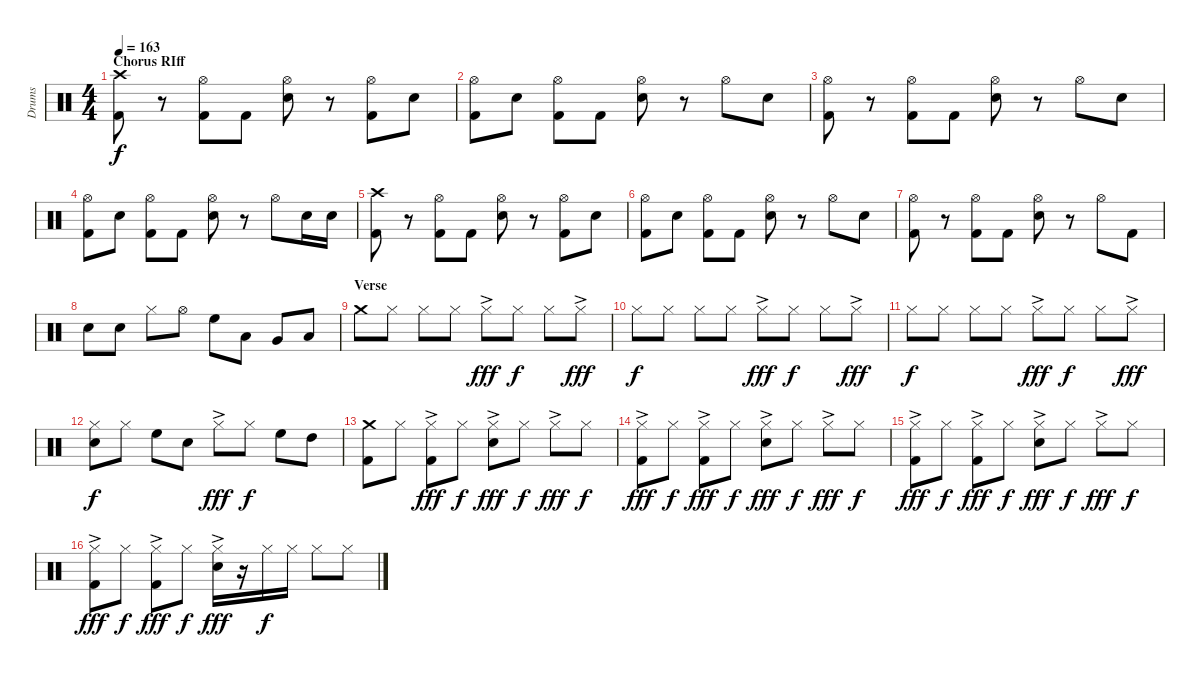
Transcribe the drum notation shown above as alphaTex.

\track ("Drums" "Drums") {instrument percussion}
\staff {score}
\articulation defaults
\ts (4 4)
\section ("" "Chorus RIff")
\tempo 163
\clef neutral
\ks c
("Crash high (hit)" "Kick (hit) 2").8{dy f} r.8 ("Hi-Hat (open)" "Kick (hit) 2").8 "Kick (hit) 2".8 ("Hi-Hat (open)" "Snare (hit) 2").8 r.8 ("Hi-Hat (open)" "Kick (hit) 2").8 "Snare (hit) 2".8 |
("Hi-Hat (open)" "Kick (hit) 2").8 "Snare (hit) 2".8 ("Hi-Hat (open)" "Kick (hit) 2").8 "Kick (hit) 2".8 ("Hi-Hat (open)" "Snare (hit) 2").8 r.8 "Hi-Hat (open)".8 "Snare (hit) 2".8 |
("Hi-Hat (open)" "Kick (hit) 2").8 r.8 ("Hi-Hat (open)" "Kick (hit) 2").8 "Kick (hit) 2".8 ("Hi-Hat (open)" "Snare (hit) 2").8 r.8 "Hi-Hat (open)".8 "Snare (hit) 2".8 |
("Hi-Hat (open)" "Kick (hit) 2").8 "Snare (hit) 2".8 ("Hi-Hat (open)" "Kick (hit) 2").8 "Kick (hit) 2".8 ("Hi-Hat (open)" "Snare (hit) 2").8 r.8 "Hi-Hat (open)".8 "Snare (hit) 2".16 "Snare (hit) 2".16 |
("Crash high (hit)" "Kick (hit) 2").8 r.8 ("Hi-Hat (open)" "Kick (hit) 2").8 "Kick (hit) 2".8 ("Hi-Hat (open)" "Snare (hit) 2").8 r.8 ("Hi-Hat (open)" "Kick (hit) 2").8 "Snare (hit) 2".8 |
("Hi-Hat (open)" "Kick (hit) 2").8 "Snare (hit) 2".8 ("Hi-Hat (open)" "Kick (hit) 2").8 "Kick (hit) 2".8 ("Hi-Hat (open)" "Snare (hit) 2").8 r.8 "Hi-Hat (open)".8 "Snare (hit) 2".8 |
("Hi-Hat (open)" "Kick (hit) 2").8 r.8 ("Hi-Hat (open)" "Kick (hit) 2").8 "Kick (hit) 2".8 ("Hi-Hat (open)" "Snare (hit) 2").8 r.8 "Hi-Hat (open)".8 "Kick (hit) 2".8 |
"Snare (hit) 2".8 "Snare (hit) 2".8 "Hi-Hat (closed)".8 "Hi-Hat (open)".8 "High Floor Tom (hit)".8 "Low Tom (hit)".8 "Very Low Tom (hit)".8 "Low Floor Tom (hit)".8 |
\section ("" "Verse")
"Crash medium (hit)".8 "Hi-Hat (closed)".8 "Hi-Hat (closed)".8 "Hi-Hat (closed)".8 "Hi-Hat (closed)"{ac}.8{dy fff} "Hi-Hat (closed)".8{dy f} "Hi-Hat (closed)".8 "Hi-Hat (closed)"{ac}.8{dy fff} |
"Hi-Hat (closed)".8{dy f} "Hi-Hat (closed)".8 "Hi-Hat (closed)".8 "Hi-Hat (closed)".8 "Hi-Hat (closed)"{ac}.8{dy fff} "Hi-Hat (closed)".8{dy f} "Hi-Hat (closed)".8 "Hi-Hat (closed)"{ac}.8{dy fff} |
"Hi-Hat (closed)".8{dy f} "Hi-Hat (closed)".8 "Hi-Hat (closed)".8 "Hi-Hat (closed)".8 "Hi-Hat (closed)"{ac}.8{dy fff} "Hi-Hat (closed)".8{dy f} "Hi-Hat (closed)".8 "Hi-Hat (closed)"{ac}.8{dy fff} |
("Hi-Hat (closed)" "Snare (hit) 2").8{dy f} "Hi-Hat (closed)".8 "High Floor Tom (hit)".8 "Snare (hit) 2".8 "Hi-Hat (closed)"{ac}.8{dy fff} "Hi-Hat (closed)".8{dy f} "High Floor Tom (hit)".8 "High Tom (hit)".8 |
("Crash medium (hit)" "Kick (hit) 2").8 "Hi-Hat (closed)".8 ("Hi-Hat (closed)"{ac} "Kick (hit) 2").8{dy fff} "Hi-Hat (closed)".8{dy f} ("Hi-Hat (closed)"{ac} "Snare (hit) 2").8{dy fff} "Hi-Hat (closed)".8{dy f} "Hi-Hat (closed)"{ac}.8{dy fff} "Hi-Hat (closed)".8{dy f} |
("Hi-Hat (closed)"{ac} "Kick (hit) 2").8{dy fff} "Hi-Hat (closed)".8{dy f} ("Hi-Hat (closed)"{ac} "Kick (hit) 2").8{dy fff} "Hi-Hat (closed)".8{dy f} ("Hi-Hat (closed)"{ac} "Snare (hit) 2").8{dy fff} "Hi-Hat (closed)".8{dy f} "Hi-Hat (closed)"{ac}.8{dy fff} "Hi-Hat (closed)".8{dy f} |
("Hi-Hat (closed)"{ac} "Kick (hit) 2").8{dy fff} "Hi-Hat (closed)".8{dy f} ("Hi-Hat (closed)"{ac} "Kick (hit) 2").8{dy fff} "Hi-Hat (closed)".8{dy f} ("Hi-Hat (closed)"{ac} "Snare (hit) 2").8{dy fff} "Hi-Hat (closed)".8{dy f} "Hi-Hat (closed)"{ac}.8{dy fff} "Hi-Hat (closed)".8{dy f} |
("Hi-Hat (closed)"{ac} "Kick (hit) 2").8{dy fff} "Hi-Hat (closed)".8{dy f} ("Hi-Hat (closed)"{ac} "Kick (hit) 2").8{dy fff} "Hi-Hat (closed)".8{dy f} ("Hi-Hat (closed)"{ac} "Snare (hit) 2").16{dy fff} r.16 "Hi-Hat (closed)".16{dy f} "Hi-Hat (closed)".16 "Hi-Hat (closed)".8 "Hi-Hat (closed)".8
